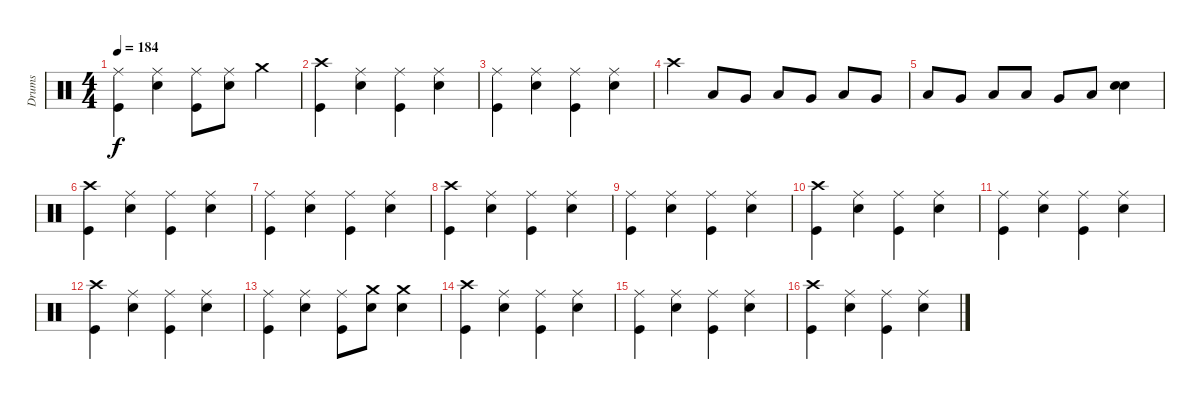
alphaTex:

\track ("Drums" "Drums") {instrument percussion}
\staff {score}
\articulation defaults
\ts (4 4)
\tempo 184
\clef neutral
\ks c
("Ride (middle)" "Kick (hit)").4{dy f} ("Ride (middle)" "Electric Snare (hit)").4 ("Ride (middle)" "Kick (hit)").8 ("Ride (middle)" "Electric Snare (hit)").8 "Crash medium (hit)".4 |
("Crash high (hit)" "Kick (hit)").4 ("Ride (middle)" "Electric Snare (hit)").4 ("Ride (middle)" "Kick (hit)").4 ("Ride (middle)" "Electric Snare (hit)").4 |
("Ride (middle)" "Kick (hit)").4 ("Ride (middle)" "Electric Snare (hit)").4 ("Ride (middle)" "Kick (hit)").4 ("Ride (middle)" "Electric Snare (hit)").4 |
"Crash high (hit)".4 "Low Tom (hit)".8 "Very Low Tom (hit)".8 "Low Tom (hit)".8 "Very Low Tom (hit)".8 "Low Tom (hit)".8 "Very Low Tom (hit)".8 |
"Low Tom (hit)".8 "Very Low Tom (hit)".8 "Low Tom (hit)".8 "Low Floor Tom (hit)".8 "Very Low Tom (hit)".8 "Low Floor Tom (hit)".8 ("Electric Snare (hit)" "Electric Snare (hit)").4 |
("Crash high (hit)" "Kick (hit)").4 ("Ride (middle)" "Electric Snare (hit)").4 ("Ride (middle)" "Kick (hit)").4 ("Ride (middle)" "Electric Snare (hit)").4 |
("Ride (middle)" "Kick (hit)").4 ("Ride (middle)" "Electric Snare (hit)").4 ("Ride (middle)" "Kick (hit)").4 ("Ride (middle)" "Electric Snare (hit)").4 |
("Crash high (hit)" "Kick (hit)").4 ("Ride (middle)" "Electric Snare (hit)").4 ("Ride (middle)" "Kick (hit)").4 ("Ride (middle)" "Electric Snare (hit)").4 |
("Ride (middle)" "Kick (hit)").4 ("Ride (middle)" "Electric Snare (hit)").4 ("Ride (middle)" "Kick (hit)").4 ("Ride (middle)" "Electric Snare (hit)").4 |
("Crash high (hit)" "Kick (hit)").4 ("Ride (middle)" "Electric Snare (hit)").4 ("Ride (middle)" "Kick (hit)").4 ("Ride (middle)" "Electric Snare (hit)").4 |
("Ride (middle)" "Kick (hit)").4 ("Ride (middle)" "Electric Snare (hit)").4 ("Ride (middle)" "Kick (hit)").4 ("Ride (middle)" "Electric Snare (hit)").4 |
("Crash high (hit)" "Kick (hit)").4 ("Ride (middle)" "Electric Snare (hit)").4 ("Ride (middle)" "Kick (hit)").4 ("Ride (middle)" "Electric Snare (hit)").4 |
("Ride (middle)" "Kick (hit)").4 ("Ride (middle)" "Electric Snare (hit)").4 ("Ride (middle)" "Kick (hit)").8 ("Crash medium (hit)" "Electric Snare (hit)").8 ("Crash medium (hit)" "Electric Snare (hit)").4 |
("Crash high (hit)" "Kick (hit)").4 ("Ride (middle)" "Electric Snare (hit)").4 ("Ride (middle)" "Kick (hit)").4 ("Ride (middle)" "Electric Snare (hit)").4 |
("Ride (middle)" "Kick (hit)").4 ("Ride (middle)" "Electric Snare (hit)").4 ("Ride (middle)" "Kick (hit)").4 ("Ride (middle)" "Electric Snare (hit)").4 |
("Crash high (hit)" "Kick (hit)").4 ("Ride (middle)" "Electric Snare (hit)").4 ("Ride (middle)" "Kick (hit)").4 ("Ride (middle)" "Electric Snare (hit)").4
